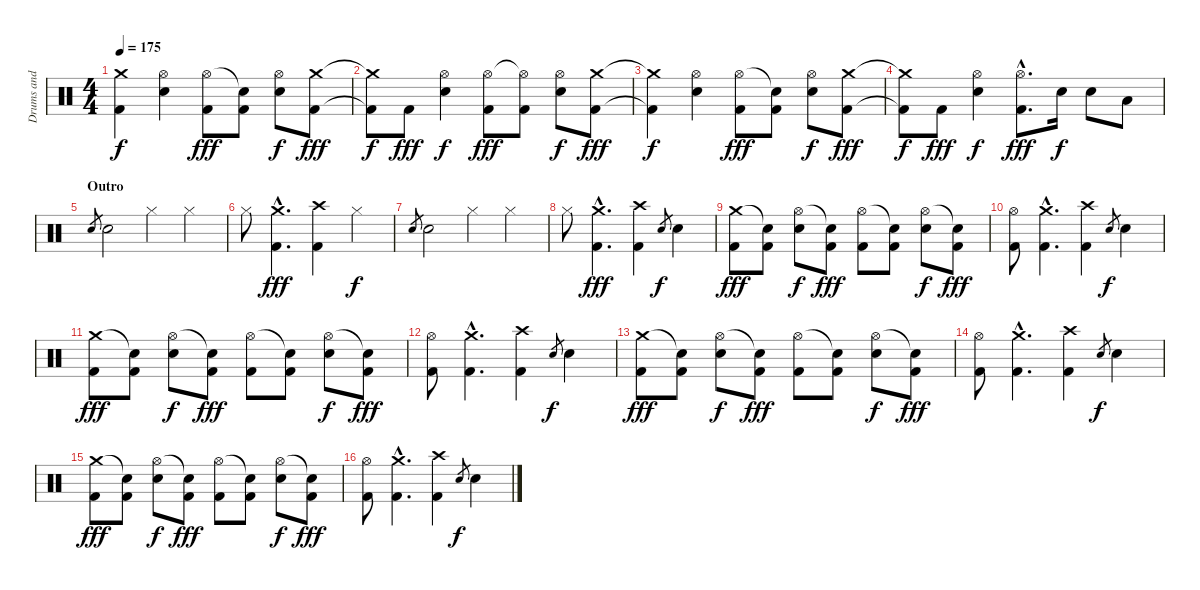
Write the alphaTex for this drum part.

\track ("Drums and Percussion" "Drums and ") {instrument percussion}
\staff {score}
\articulation defaults
\ts (4 4)
\tempo 175
\clef neutral
\ks c
("Crash medium (hit)"{t} "Kick (hit) 2"{t}).4{dy f} ("Hi-Hat (open)" "Snare (hit) 2").4 ("Hi-Hat (open)" "Kick (hit) 2").8{dy fff} ("Snare (hit)"{t} "Kick (hit) 2").8 ("Hi-Hat (open)" "Snare (hit) 2").8{dy f} ("Crash medium (hit)" "Kick (hit) 2").8{dy fff} |
("Crash medium (hit)"{t} "Kick (hit) 2"{t}).8{dy f} "Kick (hit) 2".8{dy fff} ("Hi-Hat (open)" "Snare (hit) 2").4{dy f} ("Hi-Hat (open)" "Kick (hit) 2").8{dy fff} ("Hi-Hat (open)"{t} "Kick (hit) 2").8 ("Hi-Hat (open)" "Snare (hit) 2").8{dy f} ("Crash medium (hit)" "Kick (hit) 2").8{dy fff} |
("Crash medium (hit)"{t} "Kick (hit) 2"{t}).4{dy f} ("Hi-Hat (open)" "Snare (hit) 2").4 ("Hi-Hat (open)" "Kick (hit) 2").8{dy fff} ("Snare (hit)"{t} "Kick (hit) 2").8 ("Hi-Hat (open)" "Snare (hit) 2").8{dy f} ("Crash medium (hit)" "Kick (hit) 2").8{dy fff} |
("Crash medium (hit)"{t} "Kick (hit) 2"{t}).8{dy f} "Kick (hit) 2".8{dy fff} ("Hi-Hat (open)" "Snare (hit) 2").4{dy f} ("Hi-Hat (open)"{hac} "Kick (hit) 2"{hac}).8{d dy fff} "Snare (hit) 2".16{dy f} "Snare (hit) 2".8 "Low Tom (hit)".8 |
\section ("" "Outro")
"Snare (hit) 2".8{gr} "Snare (hit) 2".2 "Hi-Hat (closed)".4 "Hi-Hat (closed)".4 |
"Hi-Hat (closed)".8 ("Crash medium (hit)"{hac} "Kick (hit) 2"{hac}).4{d dy fff} ("Crash high (hit)" "Kick (hit) 2").4 "Hi-Hat (closed)".4{dy f} |
"Snare (hit) 2".8{gr} "Snare (hit) 2".2 "Hi-Hat (closed)".4 "Hi-Hat (closed)".4 |
"Hi-Hat (closed)".8 ("Crash medium (hit)"{hac} "Kick (hit) 2"{hac}).4{d dy fff} ("Crash high (hit)" "Kick (hit) 2").4 "Snare (hit) 2".8{gr dy f} "Snare (hit) 2".4 |
("Crash medium (hit)" "Kick (hit) 2").8{dy fff} ("Snare (hit)"{t} "Kick (hit) 2").8 ("Hi-Hat (open)" "Snare (hit) 2").8{dy f} ("Snare (hit)"{t} "Kick (hit) 2").8{dy fff} ("Hi-Hat (open)" "Kick (hit) 2").8 ("Snare (hit)"{t} "Kick (hit) 2").8 ("Hi-Hat (open)" "Snare (hit) 2").8{dy f} ("Snare (hit)"{t} "Kick (hit) 2").8{dy fff} |
("Hi-Hat (open)" "Kick (hit) 2").8 ("Crash medium (hit)"{hac} "Kick (hit) 2"{hac}).4{d} ("Crash high (hit)" "Kick (hit) 2").4 "Snare (hit) 2".8{gr dy f} "Snare (hit) 2".4 |
("Crash medium (hit)" "Kick (hit) 2").8{dy fff} ("Snare (hit)"{t} "Kick (hit) 2").8 ("Hi-Hat (open)" "Snare (hit) 2").8{dy f} ("Snare (hit)"{t} "Kick (hit) 2").8{dy fff} ("Hi-Hat (open)" "Kick (hit) 2").8 ("Snare (hit)"{t} "Kick (hit) 2").8 ("Hi-Hat (open)" "Snare (hit) 2").8{dy f} ("Snare (hit)"{t} "Kick (hit) 2").8{dy fff} |
("Hi-Hat (open)" "Kick (hit) 2").8 ("Crash medium (hit)"{hac} "Kick (hit) 2"{hac}).4{d} ("Crash high (hit)" "Kick (hit) 2").4 "Snare (hit) 2".8{gr dy f} "Snare (hit) 2".4 |
("Crash medium (hit)" "Kick (hit) 2").8{dy fff} ("Snare (hit)"{t} "Kick (hit) 2").8 ("Hi-Hat (open)" "Snare (hit) 2").8{dy f} ("Snare (hit)"{t} "Kick (hit) 2").8{dy fff} ("Hi-Hat (open)" "Kick (hit) 2").8 ("Snare (hit)"{t} "Kick (hit) 2").8 ("Hi-Hat (open)" "Snare (hit) 2").8{dy f} ("Snare (hit)"{t} "Kick (hit) 2").8{dy fff} |
("Hi-Hat (open)" "Kick (hit) 2").8 ("Crash medium (hit)"{hac} "Kick (hit) 2"{hac}).4{d} ("Crash high (hit)" "Kick (hit) 2").4 "Snare (hit) 2".8{gr dy f} "Snare (hit) 2".4 |
("Crash medium (hit)" "Kick (hit) 2").8{dy fff} ("Snare (hit)"{t} "Kick (hit) 2").8 ("Hi-Hat (open)" "Snare (hit) 2").8{dy f} ("Snare (hit)"{t} "Kick (hit) 2").8{dy fff} ("Hi-Hat (open)" "Kick (hit) 2").8 ("Snare (hit)"{t} "Kick (hit) 2").8 ("Hi-Hat (open)" "Snare (hit) 2").8{dy f} ("Snare (hit)"{t} "Kick (hit) 2").8{dy fff} |
("Hi-Hat (open)" "Kick (hit) 2").8 ("Crash medium (hit)"{hac} "Kick (hit) 2"{hac}).4{d} ("Crash high (hit)" "Kick (hit) 2").4 "Snare (hit) 2".8{gr dy f} "Snare (hit) 2".4
